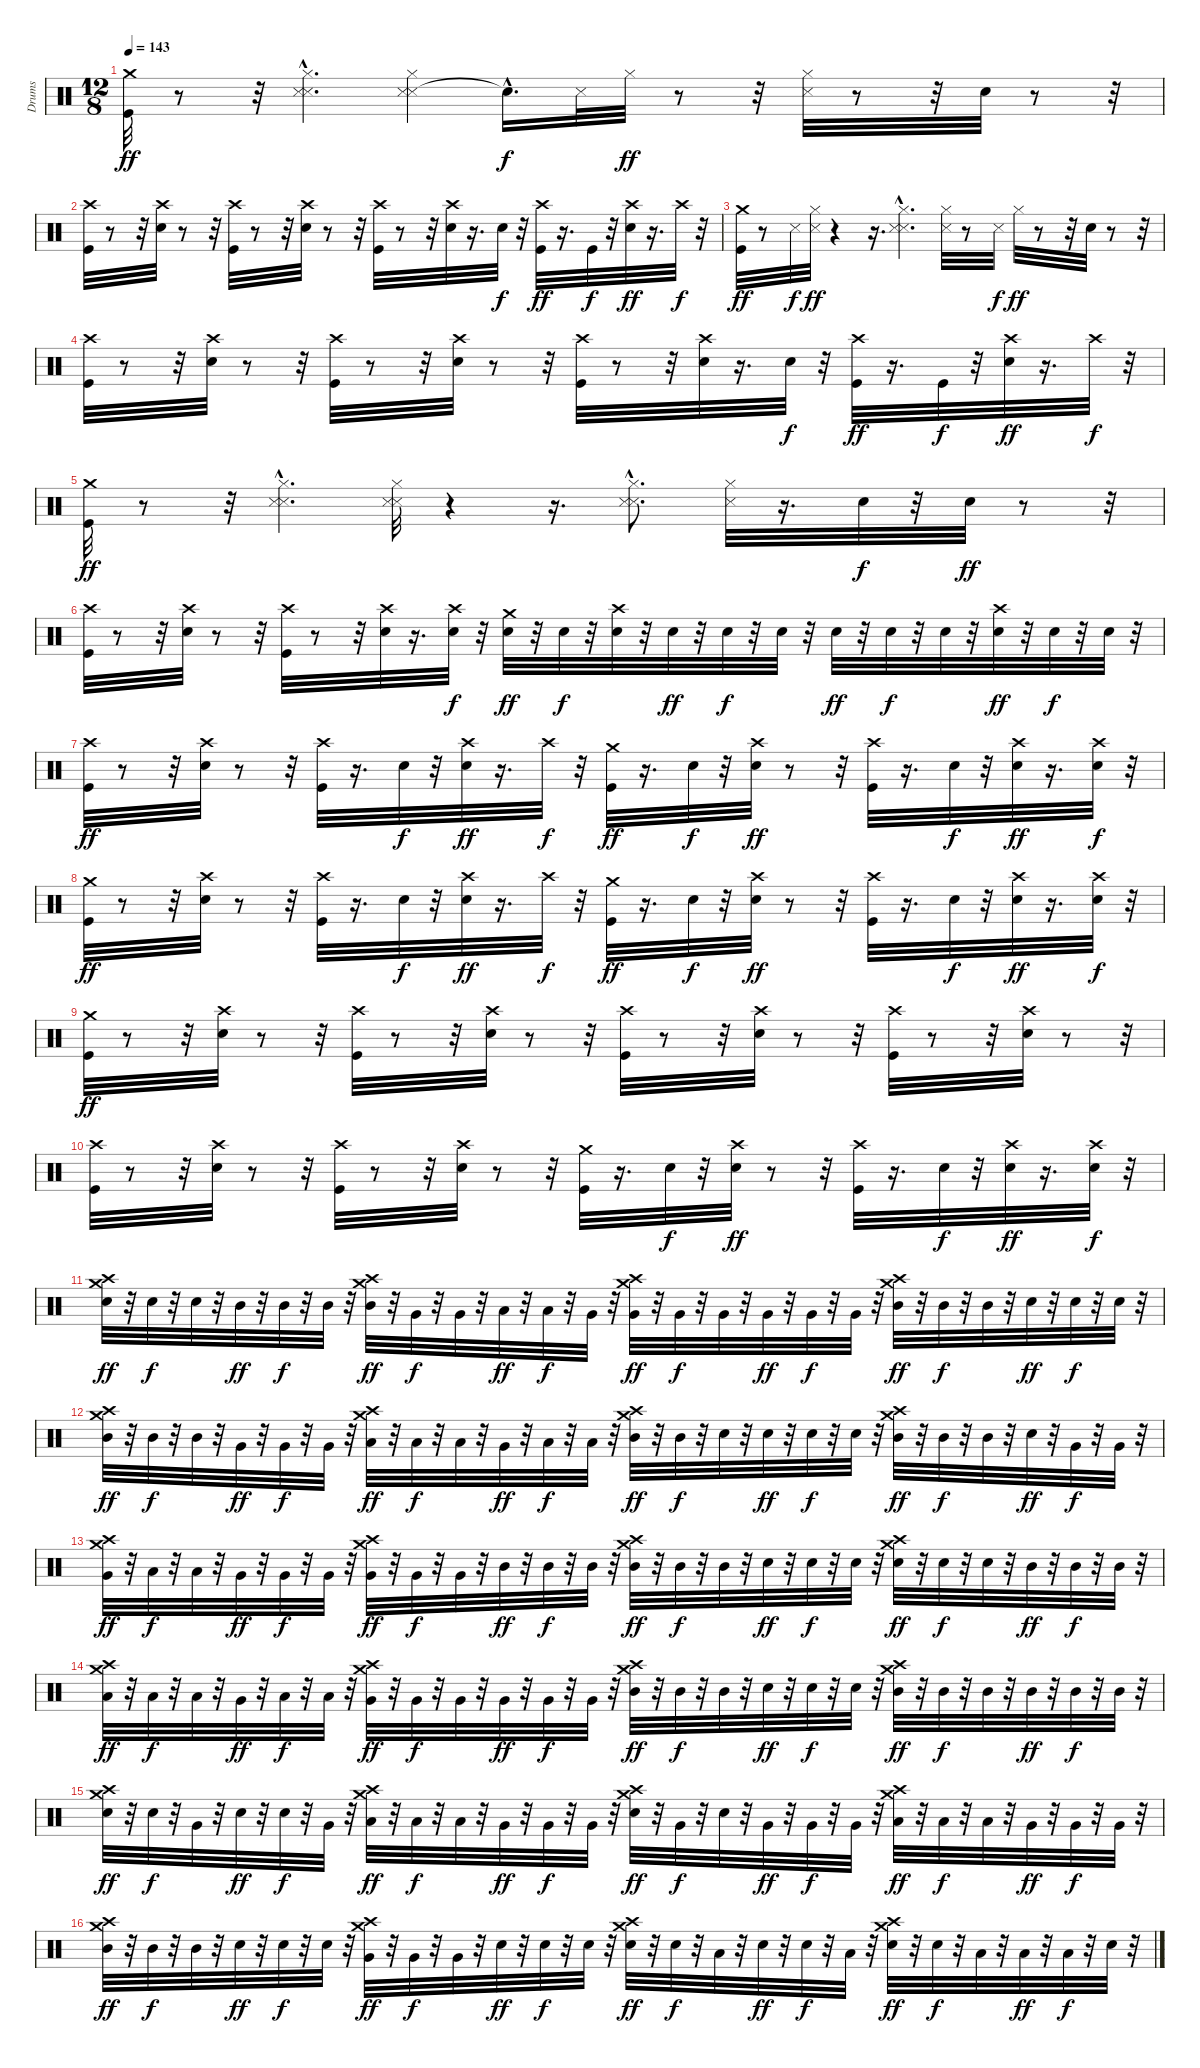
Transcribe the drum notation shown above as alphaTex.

\track ("Drums" "Drums") {instrument percussion}
\staff {score}
\articulation defaults
\ts (12 8)
\tempo 143
\clef neutral
\ks c
("Crash medium (hit)" "Kick (hit)").32{dy ff} r.8 r.32 ("Metronome (hit)"{hac} "Metronome (hit)" "Hi-Hat (closed)").4{d} ("Metronome (hit)" "Metronome (hit)" "Hi-Hat (closed)").4 "Snare (hit)"{hac t}.16{d dy f} "Metronome (hit)".32 "Hi-Hat (closed)".32{dy ff} r.8 r.32 ("Hi-Hat (closed)" "Metronome (hit)").32 r.8 r.32 "Snare (hit) 2".32 r.8 r.32 |
("Crash high (hit)" "Kick (hit)").32 r.8 r.32 ("Crash high (hit)" "Snare (hit) 2").32 r.8 r.32 ("Crash high (hit)" "Kick (hit)").32 r.8 r.32 ("Crash high (hit)" "Snare (hit) 2").32 r.8 r.32 ("Crash high (hit)" "Kick (hit)").32 r.8 r.32 ("Crash high (hit)" "Snare (hit) 2").32 r.16{d} "Snare (hit) 2".32{dy f} r.32 ("Crash high (hit)" "Kick (hit)").32{dy ff} r.16{d} "Kick (hit)".32{dy f} r.32 ("Crash high (hit)" "Snare (hit) 2").32{dy ff} r.16{d} "Crash high (hit)".32{dy f} r.32 |
("Kick (hit)" "Crash medium (hit)").32{dy ff} r.8 "Metronome (hit)".32{dy f} ("Metronome (hit)" "Hi-Hat (closed)").32{dy ff} r.4 r.16{d} ("Metronome (hit)"{hac} "Metronome (hit)" "Hi-Hat (closed)").4{d} ("Metronome (hit)" "Hi-Hat (closed)").32 r.8 "Metronome (hit)".32{dy f} "Hi-Hat (closed)".32{dy ff} r.8 r.32 "Snare (hit) 2".32 r.8 r.32 |
("Crash high (hit)" "Kick (hit)").32 r.8 r.32 ("Crash high (hit)" "Snare (hit) 2").32 r.8 r.32 ("Crash high (hit)" "Kick (hit)").32 r.8 r.32 ("Crash high (hit)" "Snare (hit) 2").32 r.8 r.32 ("Crash high (hit)" "Kick (hit)").32 r.8 r.32 ("Crash high (hit)" "Snare (hit) 2").32 r.16{d} "Snare (hit) 2".32{dy f} r.32 ("Crash high (hit)" "Kick (hit)").32{dy ff} r.16{d} "Kick (hit)".32{dy f} r.32 ("Crash high (hit)" "Snare (hit) 2").32{dy ff} r.16{d} "Crash high (hit)".32{dy f} r.32 |
("Kick (hit)" "Crash medium (hit)").32{dy ff} r.8 r.32 ("Metronome (hit)"{hac} "Metronome (hit)" "Hi-Hat (closed)").4{d} ("Metronome (hit)" "Hi-Hat (closed)" "Metronome (hit)").32 r.4 r.16{d} ("Metronome (hit)"{hac} "Metronome (hit)" "Hi-Hat (closed)").8{d} ("Hi-Hat (closed)" "Metronome (hit)").32 r.16{d} "Snare (hit) 2".32{dy f} r.32 "Snare (hit) 2".32{dy ff} r.8 r.32 |
("Crash high (hit)" "Kick (hit)").32 r.8 r.32 ("Crash high (hit)" "Snare (hit) 2").32 r.8 r.32 ("Crash high (hit)" "Kick (hit)").32 r.8 r.32 ("Crash high (hit)" "Snare (hit) 2").32 r.16{d} ("Electric Snare (hit)" "Crash high (hit)").32{dy f} r.32 ("Snare (hit) 2" "Crash medium (hit)").32{dy ff} r.32 "Snare (hit) 2".32{dy f} r.32 ("Crash high (hit)" "Snare (hit) 2").32 r.32 "Snare (hit) 2".32{dy ff} r.32 "Snare (hit) 2".32{dy f} r.32 "Snare (hit) 2".32 r.32 "Snare (hit) 2".32{dy ff} r.32 "Snare (hit) 2".32{dy f} r.32 "Snare (hit) 2".32 r.32 ("Crash high (hit)" "Snare (hit) 2").32{dy ff} r.32 "Snare (hit) 2".32{dy f} r.32 "Snare (hit) 2".32 r.32 |
("Crash high (hit)" "Kick (hit)").32{dy ff} r.8 r.32 ("Crash high (hit)" "Snare (hit) 2").32 r.8 r.32 ("Crash high (hit)" "Kick (hit)").32 r.16{d} "Electric Snare (hit)".32{dy f} r.32 ("Crash high (hit)" "Snare (hit) 2").32{dy ff} r.16{d} "Crash high (hit)".32{dy f} r.32 ("Crash medium (hit)" "Kick (hit)").32{dy ff} r.16{d} "Snare (hit) 2".32{dy f} r.32 ("Crash high (hit)" "Snare (hit) 2").32{dy ff} r.8 r.32 ("Crash high (hit)" "Kick (hit)").32 r.16{d} "Electric Snare (hit)".32{dy f} r.32 ("Crash high (hit)" "Snare (hit) 2").32{dy ff} r.16{d} ("Electric Snare (hit)" "Crash high (hit)").32{dy f} r.32 |
("Crash medium (hit)" "Kick (hit)").32{dy ff} r.8 r.32 ("Crash high (hit)" "Snare (hit) 2").32 r.8 r.32 ("Crash high (hit)" "Kick (hit)").32 r.16{d} "Electric Snare (hit)".32{dy f} r.32 ("Crash high (hit)" "Snare (hit) 2").32{dy ff} r.16{d} "Crash high (hit)".32{dy f} r.32 ("Crash medium (hit)" "Kick (hit)").32{dy ff} r.16{d} "Snare (hit) 2".32{dy f} r.32 ("Crash high (hit)" "Snare (hit) 2").32{dy ff} r.8 r.32 ("Crash high (hit)" "Kick (hit)").32 r.16{d} "Electric Snare (hit)".32{dy f} r.32 ("Crash high (hit)" "Snare (hit) 2").32{dy ff} r.16{d} ("Electric Snare (hit)" "Crash high (hit)").32{dy f} r.32 |
("Crash medium (hit)" "Kick (hit)").32{dy ff} r.8 r.32 ("Crash high (hit)" "Snare (hit) 2").32 r.8 r.32 ("Crash high (hit)" "Kick (hit)").32 r.8 r.32 ("Crash high (hit)" "Snare (hit) 2").32 r.8 r.32 ("Crash high (hit)" "Kick (hit)").32 r.8 r.32 ("Crash high (hit)" "Snare (hit) 2").32 r.8 r.32 ("Crash high (hit)" "Kick (hit)").32 r.8 r.32 ("Crash high (hit)" "Snare (hit) 2").32 r.8 r.32 |
("Crash high (hit)" "Kick (hit)").32 r.8 r.32 ("Crash high (hit)" "Snare (hit) 2").32 r.8 r.32 ("Crash high (hit)" "Kick (hit)").32 r.8 r.32 ("Crash high (hit)" "Snare (hit) 2").32 r.8 r.32 ("Crash medium (hit)" "Kick (hit)").32 r.16{d} "Snare (hit) 2".32{dy f} r.32 ("Crash high (hit)" "Snare (hit) 2").32{dy ff} r.8 r.32 ("Crash high (hit)" "Kick (hit)").32 r.16{d} "Electric Snare (hit)".32{dy f} r.32 ("Crash high (hit)" "Snare (hit) 2").32{dy ff} r.16{d} ("Electric Snare (hit)" "Crash high (hit)").32{dy f} r.32 |
("Snare (hit) 2" "Crash medium (hit)" "Crash high (hit)").32{dy ff} r.32 "Electric Snare (hit)".32{dy f} r.32 "Electric Snare (hit)".32 r.32 "Mid Tom (hit)".32{dy ff} r.32 "Mid Tom (hit)".32{dy f} r.32 "Mid Tom (hit)".32 r.32 ("Mid Tom (hit)" "Crash high (hit)" "Crash medium (hit)").32{dy ff} r.32 "Very Low Tom (hit)".32{dy f} r.32 "Very Low Tom (hit)".32 r.32 "Low Floor Tom (hit)".32{dy ff} r.32 "Low Floor Tom (hit)".32{dy f} r.32 "Very Low Tom (hit)".32 r.32 ("Very Low Tom (hit)" "Crash medium (hit)" "Crash high (hit)").32{dy ff} r.32 "Very Low Tom (hit)".32{dy f} r.32 "Very Low Tom (hit)".32 r.32 "Very Low Tom (hit)".32{dy ff} r.32 "Very Low Tom (hit)".32{dy f} r.32 "Very Low Tom (hit)".32 r.32 ("Mid Tom (hit)" "Crash high (hit)" "Crash medium (hit)").32{dy ff} r.32 "Mid Tom (hit)".32{dy f} r.32 "Mid Tom (hit)".32 r.32 "Electric Snare (hit)".32{dy ff} r.32 "Electric Snare (hit)".32{dy f} r.32 "Electric Snare (hit)".32 r.32 |
("Mid Tom (hit)" "Crash medium (hit)" "Crash high (hit)").32{dy ff} r.32 "Mid Tom (hit)".32{dy f} r.32 "Mid Tom (hit)".32 r.32 "Very Low Tom (hit)".32{dy ff} r.32 "Very Low Tom (hit)".32{dy f} r.32 "Very Low Tom (hit)".32 r.32 ("Low Floor Tom (hit)" "Crash high (hit)" "Crash medium (hit)").32{dy ff} r.32 "Low Floor Tom (hit)".32{dy f} r.32 "Low Floor Tom (hit)".32 r.32 "Very Low Tom (hit)".32{dy ff} r.32 "Low Floor Tom (hit)".32{dy f} r.32 "Low Floor Tom (hit)".32 r.32 ("Mid Tom (hit)" "Crash medium (hit)" "Crash high (hit)").32{dy ff} r.32 "Mid Tom (hit)".32{dy f} r.32 "Electric Snare (hit)".32 r.32 "Electric Snare (hit)".32{dy ff} r.32 "Electric Snare (hit)".32{dy f} r.32 "Electric Snare (hit)".32 r.32 ("Mid Tom (hit)" "Crash high (hit)" "Crash medium (hit)").32{dy ff} r.32 "Mid Tom (hit)".32{dy f} r.32 "Mid Tom (hit)".32 r.32 "Electric Snare (hit)".32{dy ff} r.32 "Very Low Tom (hit)".32{dy f} r.32 "Very Low Tom (hit)".32 r.32 |
("Very Low Tom (hit)" "Crash medium (hit)" "Crash high (hit)").32{dy ff} r.32 "Low Floor Tom (hit)".32{dy f} r.32 "Low Floor Tom (hit)".32 r.32 "Very Low Tom (hit)".32{dy ff} r.32 "Very Low Tom (hit)".32{dy f} r.32 "Very Low Tom (hit)".32 r.32 ("Very Low Tom (hit)" "Crash high (hit)" "Crash medium (hit)").32{dy ff} r.32 "Very Low Tom (hit)".32{dy f} r.32 "Very Low Tom (hit)".32 r.32 "Mid Tom (hit)".32{dy ff} r.32 "Mid Tom (hit)".32{dy f} r.32 "Mid Tom (hit)".32 r.32 ("Mid Tom (hit)" "Crash medium (hit)" "Crash high (hit)").32{dy ff} r.32 "Mid Tom (hit)".32{dy f} r.32 "Mid Tom (hit)".32 r.32 "Snare (hit) 2".32{dy ff} r.32 "Electric Snare (hit)".32{dy f} r.32 "Electric Snare (hit)".32 r.32 ("Electric Snare (hit)" "Crash high (hit)" "Crash medium (hit)").32{dy ff} r.32 "Electric Snare (hit)".32{dy f} r.32 "Electric Snare (hit)".32 r.32 "Mid Tom (hit)".32{dy ff} r.32 "Mid Tom (hit)".32{dy f} r.32 "Mid Tom (hit)".32 r.32 |
("Low Floor Tom (hit)" "Crash medium (hit)" "Crash high (hit)").32{dy ff} r.32 "Low Floor Tom (hit)".32{dy f} r.32 "Low Floor Tom (hit)".32 r.32 "Very Low Tom (hit)".32{dy ff} r.32 "Low Floor Tom (hit)".32{dy f} r.32 "Low Floor Tom (hit)".32 r.32 ("Very Low Tom (hit)" "Crash high (hit)" "Crash medium (hit)").32{dy ff} r.32 "Very Low Tom (hit)".32{dy f} r.32 "Very Low Tom (hit)".32 r.32 "Very Low Tom (hit)".32{dy ff} r.32 "Very Low Tom (hit)".32{dy f} r.32 "Very Low Tom (hit)".32 r.32 ("Mid Tom (hit)" "Crash medium (hit)" "Crash high (hit)").32{dy ff} r.32 "Mid Tom (hit)".32{dy f} r.32 "Mid Tom (hit)".32 r.32 "Snare (hit) 2".32{dy ff} r.32 "Snare (hit) 2".32{dy f} r.32 "Snare (hit) 2".32 r.32 ("Mid Tom (hit)" "Crash high (hit)" "Crash medium (hit)").32{dy ff} r.32 "Mid Tom (hit)".32{dy f} r.32 "Mid Tom (hit)".32 r.32 "Mid Tom (hit)".32{dy ff} r.32 "Mid Tom (hit)".32{dy f} r.32 "Mid Tom (hit)".32 r.32 |
("Electric Snare (hit)" "Crash medium (hit)" "Crash high (hit)").32{dy ff} r.32 "Electric Snare (hit)".32{dy f} r.32 "Very Low Tom (hit)".32 r.32 "Snare (hit) 2".32{dy ff} r.32 "Snare (hit) 2".32{dy f} r.32 "Very Low Tom (hit)".32 r.32 ("Low Floor Tom (hit)" "Crash high (hit)" "Crash medium (hit)").32{dy ff} r.32 "Low Floor Tom (hit)".32{dy f} r.32 "Low Floor Tom (hit)".32 r.32 "Very Low Tom (hit)".32{dy ff} r.32 "Very Low Tom (hit)".32{dy f} r.32 "Very Low Tom (hit)".32 r.32 ("Snare (hit) 2" "Crash medium (hit)" "Crash high (hit)").32{dy ff} r.32 "Very Low Tom (hit)".32{dy f} r.32 "Electric Snare (hit)".32 r.32 "Very Low Tom (hit)".32{dy ff} r.32 "Very Low Tom (hit)".32{dy f} r.32 "Very Low Tom (hit)".32 r.32 ("Low Floor Tom (hit)" "Crash high (hit)" "Crash medium (hit)").32{dy ff} r.32 "Low Floor Tom (hit)".32{dy f} r.32 "Low Floor Tom (hit)".32 r.32 "Very Low Tom (hit)".32{dy ff} r.32 "Very Low Tom (hit)".32{dy f} r.32 "Very Low Tom (hit)".32 r.32 |
("Mid Tom (hit)" "Crash medium (hit)" "Crash high (hit)").32{dy ff} r.32 "Mid Tom (hit)".32{dy f} r.32 "Mid Tom (hit)".32 r.32 "Snare (hit) 2".32{dy ff} r.32 "Snare (hit) 2".32{dy f} r.32 "Snare (hit) 2".32 r.32 ("Very Low Tom (hit)" "Crash high (hit)" "Crash medium (hit)").32{dy ff} r.32 "Very Low Tom (hit)".32{dy f} r.32 "Very Low Tom (hit)".32 r.32 "Snare (hit) 2".32{dy ff} r.32 "Snare (hit) 2".32{dy f} r.32 "Snare (hit) 2".32 r.32 ("Electric Snare (hit)" "Crash medium (hit)" "Crash high (hit)").32{dy ff} r.32 "Snare (hit) 2".32{dy f} r.32 "Low Floor Tom (hit)".32 r.32 "Snare (hit) 2".32{dy ff} r.32 "Snare (hit) 2".32{dy f} r.32 "Low Floor Tom (hit)".32 r.32 ("Snare (hit) 2" "Crash high (hit)" "Crash medium (hit)").32{dy ff} r.32 "Snare (hit) 2".32{dy f} r.32 "Low Floor Tom (hit)".32 r.32 "Low Floor Tom (hit)".32{dy ff} r.32 "Low Floor Tom (hit)".32{dy f} r.32 "Snare (hit) 2".32 r.32
